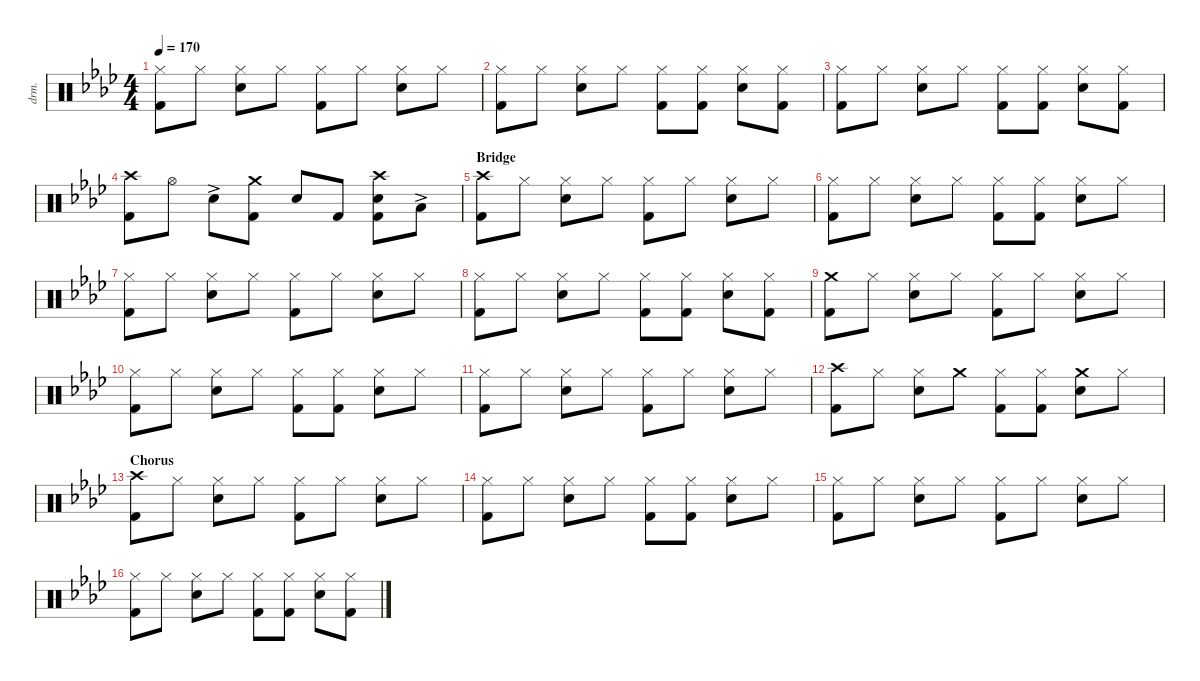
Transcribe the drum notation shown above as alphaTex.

\defaultSystemsLayout 4
\hideDynamics
\bracketExtendMode nobrackets
\otherSystemsTrackNameOrientation horizontal
\track ("Drumkit" "drm.") {instrument percussion}
\staff {score}
\articulation defaults
\ts (4 4)
\tempo 170
\clef neutral
\ks fminor
("Hi-Hat (closed)"{acc forcenatural} "Kick (hit) 2"{acc forcenatural}).8{dy mf beam Down} "Hi-Hat (closed)"{acc forcenatural}.8{beam Down} ("Hi-Hat (closed)"{acc forcenatural} "Snare (hit) 2"{acc forcenatural}).8{beam Down} "Hi-Hat (closed)"{acc forcenatural}.8{beam Down} ("Hi-Hat (closed)"{acc forcenatural} "Kick (hit) 2"{acc forcenatural}).8{beam Down} "Hi-Hat (closed)"{acc forcenatural}.8{beam Down} ("Hi-Hat (closed)"{acc forcenatural} "Snare (hit) 2"{acc forcenatural}).8{beam Down} "Hi-Hat (closed)"{acc forcenatural}.8{beam Down} |
("Hi-Hat (closed)"{acc forcenatural} "Kick (hit) 2"{acc forcenatural}).8{beam Down} "Hi-Hat (closed)"{acc forcenatural}.8{beam Down} ("Hi-Hat (closed)"{acc forcenatural} "Snare (hit) 2"{acc forcenatural}).8{beam Down} "Hi-Hat (closed)"{acc forcenatural}.8{beam Down} ("Hi-Hat (closed)"{acc forcenatural} "Kick (hit) 2"{acc forcenatural}).8{beam Down} ("Hi-Hat (closed)"{acc forcenatural} "Kick (hit) 2"{acc forcenatural}).8{beam Down} ("Hi-Hat (closed)"{acc forcenatural} "Snare (hit) 2"{acc forcenatural}).8{beam Down} ("Hi-Hat (closed)"{acc forcenatural} "Kick (hit) 2"{acc forcenatural}).8{beam Down} |
("Hi-Hat (closed)"{acc forcenatural} "Kick (hit) 2"{acc forcenatural}).8{beam Down} "Hi-Hat (closed)"{acc forcenatural}.8{beam Down} ("Hi-Hat (closed)"{acc forcenatural} "Snare (hit) 2"{acc forcenatural}).8{beam Down} "Hi-Hat (closed)"{acc forcenatural}.8{beam Down} ("Hi-Hat (closed)"{acc forcenatural} "Kick (hit) 2"{acc forcenatural}).8{beam Down} ("Hi-Hat (closed)"{acc forcenatural} "Kick (hit) 2"{acc forcenatural}).8{beam Down} ("Hi-Hat (closed)"{acc forcenatural} "Snare (hit) 2"{acc forcenatural}).8{beam Down} ("Hi-Hat (closed)"{acc forcenatural} "Kick (hit) 2"{acc forcenatural}).8{beam Down} |
("Kick (hit) 2"{acc forcenatural} "Crash high (hit)"{acc forcenatural}).8{beam Down} "Hi-Hat (open)"{acc forcenatural}.8{beam Down} "Snare (hit) 2"{ac acc forcenatural}.8{beam Down} ("Crash medium (hit)"{acc forcenatural} "Kick (hit) 2"{acc forcenatural}).8{beam Down} "Snare (hit) 2"{acc forcenatural}.8{beam Up} "Kick (hit) 2"{acc forcenatural}.8{beam Up} ("Kick (hit) 2"{acc forcenatural} "Crash high (hit)"{acc forcenatural} "Snare (hit) 2"{acc forcenatural}).8{beam Down} "Low Tom (hit)"{ac acc forcenatural}.8{beam Down} |
\section ("" "Bridge")
("Kick (hit) 2"{acc forcenatural} "Crash high (hit)"{acc forcenatural}).8{beam Down} "Hi-Hat (closed)"{acc forcenatural}.8{beam Down} ("Hi-Hat (closed)"{acc forcenatural} "Snare (hit) 2"{acc forcenatural}).8{beam Down} "Hi-Hat (closed)"{acc forcenatural}.8{beam Down} ("Hi-Hat (closed)"{acc forcenatural} "Kick (hit) 2"{acc forcenatural}).8{beam Down} "Hi-Hat (closed)"{acc forcenatural}.8{beam Down} ("Hi-Hat (closed)"{acc forcenatural} "Snare (hit) 2"{acc forcenatural}).8{beam Down} "Hi-Hat (closed)"{acc forcenatural}.8{beam Down} |
("Hi-Hat (closed)"{acc forcenatural} "Kick (hit) 2"{acc forcenatural}).8{beam Down} "Hi-Hat (closed)"{acc forcenatural}.8{beam Down} ("Hi-Hat (closed)"{acc forcenatural} "Snare (hit) 2"{acc forcenatural}).8{beam Down} "Hi-Hat (closed)"{acc forcenatural}.8{beam Down} ("Hi-Hat (closed)"{acc forcenatural} "Kick (hit) 2"{acc forcenatural}).8{beam Down} ("Hi-Hat (closed)"{acc forcenatural} "Kick (hit) 2"{acc forcenatural}).8{beam Down} ("Hi-Hat (closed)"{acc forcenatural} "Snare (hit) 2"{acc forcenatural}).8{beam Down} "Hi-Hat (closed)"{acc forcenatural}.8{beam Down} |
("Hi-Hat (closed)"{acc forcenatural} "Kick (hit) 2"{acc forcenatural}).8{beam Down} "Hi-Hat (closed)"{acc forcenatural}.8{beam Down} ("Hi-Hat (closed)"{acc forcenatural} "Snare (hit) 2"{acc forcenatural}).8{beam Down} "Hi-Hat (closed)"{acc forcenatural}.8{beam Down} ("Hi-Hat (closed)"{acc forcenatural} "Kick (hit) 2"{acc forcenatural}).8{beam Down} "Hi-Hat (closed)"{acc forcenatural}.8{beam Down} ("Hi-Hat (closed)"{acc forcenatural} "Snare (hit) 2"{acc forcenatural}).8{beam Down} "Hi-Hat (closed)"{acc forcenatural}.8{beam Down} |
("Hi-Hat (closed)"{acc forcenatural} "Kick (hit) 2"{acc forcenatural}).8{beam Down} "Hi-Hat (closed)"{acc forcenatural}.8{beam Down} ("Hi-Hat (closed)"{acc forcenatural} "Snare (hit) 2"{acc forcenatural}).8{beam Down} "Hi-Hat (closed)"{acc forcenatural}.8{beam Down} ("Hi-Hat (closed)"{acc forcenatural} "Kick (hit) 2"{acc forcenatural}).8{beam Down} ("Hi-Hat (closed)"{acc forcenatural} "Kick (hit) 2"{acc forcenatural}).8{beam Down} ("Hi-Hat (closed)"{acc forcenatural} "Snare (hit) 2"{acc forcenatural}).8{beam Down} ("Hi-Hat (closed)"{acc forcenatural} "Kick (hit) 2"{acc forcenatural}).8{beam Down} |
("Kick (hit) 2"{acc forcenatural} "Crash medium (hit)"{acc forcenatural}).8{beam Down} "Hi-Hat (closed)"{acc forcenatural}.8{beam Down} ("Hi-Hat (closed)"{acc forcenatural} "Snare (hit) 2"{acc forcenatural}).8{beam Down} "Hi-Hat (closed)"{acc forcenatural}.8{beam Down} ("Hi-Hat (closed)"{acc forcenatural} "Kick (hit) 2"{acc forcenatural}).8{beam Down} "Hi-Hat (closed)"{acc forcenatural}.8{beam Down} ("Hi-Hat (closed)"{acc forcenatural} "Snare (hit) 2"{acc forcenatural}).8{beam Down} "Hi-Hat (closed)"{acc forcenatural}.8{beam Down} |
("Hi-Hat (closed)"{acc forcenatural} "Kick (hit) 2"{acc forcenatural}).8{beam Down} "Hi-Hat (closed)"{acc forcenatural}.8{beam Down} ("Hi-Hat (closed)"{acc forcenatural} "Snare (hit) 2"{acc forcenatural}).8{beam Down} "Hi-Hat (closed)"{acc forcenatural}.8{beam Down} ("Hi-Hat (closed)"{acc forcenatural} "Kick (hit) 2"{acc forcenatural}).8{beam Down} ("Hi-Hat (closed)"{acc forcenatural} "Kick (hit) 2"{acc forcenatural}).8{beam Down} ("Hi-Hat (closed)"{acc forcenatural} "Snare (hit) 2"{acc forcenatural}).8{beam Down} "Hi-Hat (closed)"{acc forcenatural}.8{beam Down} |
("Hi-Hat (closed)"{acc forcenatural} "Kick (hit) 2"{acc forcenatural}).8{beam Down} "Hi-Hat (closed)"{acc forcenatural}.8{beam Down} ("Hi-Hat (closed)"{acc forcenatural} "Snare (hit) 2"{acc forcenatural}).8{beam Down} "Hi-Hat (closed)"{acc forcenatural}.8{beam Down} ("Hi-Hat (closed)"{acc forcenatural} "Kick (hit) 2"{acc forcenatural}).8{beam Down} "Hi-Hat (closed)"{acc forcenatural}.8{beam Down} ("Hi-Hat (closed)"{acc forcenatural} "Snare (hit) 2"{acc forcenatural}).8{beam Down} "Hi-Hat (closed)"{acc forcenatural}.8{beam Down} |
("Kick (hit) 2"{acc forcenatural} "Crash high (hit)"{acc forcenatural}).8{beam Down} "Hi-Hat (closed)"{acc forcenatural}.8{beam Down} ("Hi-Hat (closed)"{acc forcenatural} "Snare (hit) 2"{acc forcenatural}).8{beam Down} "Crash medium (hit)"{acc forcenatural}.8{beam Down} ("Hi-Hat (closed)"{acc forcenatural} "Kick (hit) 2"{acc forcenatural}).8{beam Down} ("Hi-Hat (closed)"{acc forcenatural} "Kick (hit) 2"{acc forcenatural}).8{beam Down} ("Snare (hit) 2"{acc forcenatural} "Crash medium (hit)"{acc forcenatural}).8{beam Down} "Hi-Hat (closed)"{acc forcenatural}.8{beam Down} |
\section ("" "Chorus")
("Kick (hit) 2"{acc forcenatural} "Crash high (hit)"{acc forcenatural}).8{beam Down} "Hi-Hat (closed)"{acc forcenatural}.8{beam Down} ("Hi-Hat (closed)"{acc forcenatural} "Snare (hit) 2"{acc forcenatural}).8{beam Down} "Hi-Hat (closed)"{acc forcenatural}.8{beam Down} ("Hi-Hat (closed)"{acc forcenatural} "Kick (hit) 2"{acc forcenatural}).8{beam Down} "Hi-Hat (closed)"{acc forcenatural}.8{beam Down} ("Hi-Hat (closed)"{acc forcenatural} "Snare (hit) 2"{acc forcenatural}).8{beam Down} "Hi-Hat (closed)"{acc forcenatural}.8{beam Down} |
("Hi-Hat (closed)"{acc forcenatural} "Kick (hit) 2"{acc forcenatural}).8{beam Down} "Hi-Hat (closed)"{acc forcenatural}.8{beam Down} ("Hi-Hat (closed)"{acc forcenatural} "Snare (hit) 2"{acc forcenatural}).8{beam Down} "Hi-Hat (closed)"{acc forcenatural}.8{beam Down} ("Hi-Hat (closed)"{acc forcenatural} "Kick (hit) 2"{acc forcenatural}).8{beam Down} ("Hi-Hat (closed)"{acc forcenatural} "Kick (hit) 2"{acc forcenatural}).8{beam Down} ("Hi-Hat (closed)"{acc forcenatural} "Snare (hit) 2"{acc forcenatural}).8{beam Down} "Hi-Hat (closed)"{acc forcenatural}.8{beam Down} |
("Hi-Hat (closed)"{acc forcenatural} "Kick (hit) 2"{acc forcenatural}).8{beam Down} "Hi-Hat (closed)"{acc forcenatural}.8{beam Down} ("Hi-Hat (closed)"{acc forcenatural} "Snare (hit) 2"{acc forcenatural}).8{beam Down} "Hi-Hat (closed)"{acc forcenatural}.8{beam Down} ("Hi-Hat (closed)"{acc forcenatural} "Kick (hit) 2"{acc forcenatural}).8{beam Down} "Hi-Hat (closed)"{acc forcenatural}.8{beam Down} ("Hi-Hat (closed)"{acc forcenatural} "Snare (hit) 2"{acc forcenatural}).8{beam Down} "Hi-Hat (closed)"{acc forcenatural}.8{beam Down} |
("Hi-Hat (closed)"{acc forcenatural} "Kick (hit) 2"{acc forcenatural}).8{beam Down} "Hi-Hat (closed)"{acc forcenatural}.8{beam Down} ("Hi-Hat (closed)"{acc forcenatural} "Snare (hit) 2"{acc forcenatural}).8{beam Down} "Hi-Hat (closed)"{acc forcenatural}.8{beam Down} ("Hi-Hat (closed)"{acc forcenatural} "Kick (hit) 2"{acc forcenatural}).8{beam Down} ("Hi-Hat (closed)"{acc forcenatural} "Kick (hit) 2"{acc forcenatural}).8{beam Down} ("Hi-Hat (closed)"{acc forcenatural} "Snare (hit) 2"{acc forcenatural}).8{beam Down} ("Hi-Hat (closed)"{acc forcenatural} "Kick (hit) 2"{acc forcenatural}).8{beam Down}
